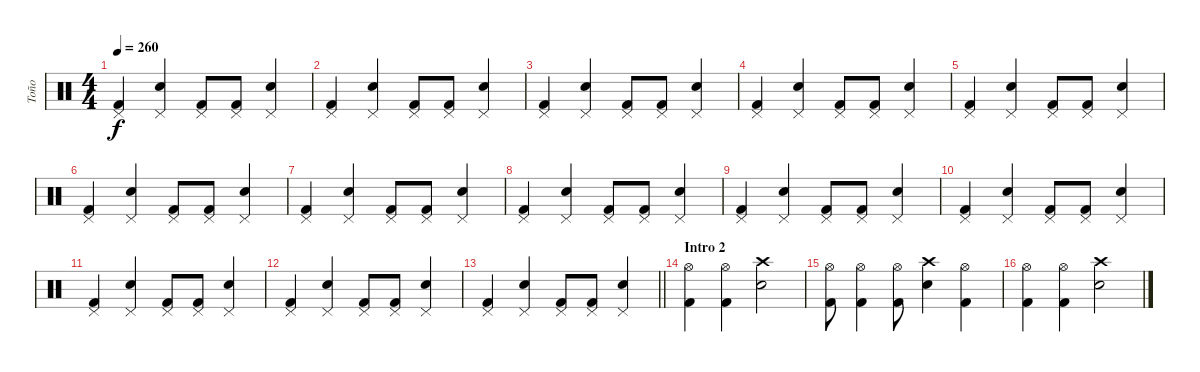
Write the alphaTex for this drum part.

\track ("Toño" "Toño") {instrument percussion}
\staff {score}
\articulation defaults
\ts (4 4)
\tempo 260
\clef neutral
\ks c
("Pedal Hi-Hat (hit)" "Kick (hit) 2").4{dy f} ("Pedal Hi-Hat (hit)" "Electric Snare (hit)").4 ("Pedal Hi-Hat (hit)" "Kick (hit) 2").8 ("Pedal Hi-Hat (hit)" "Kick (hit) 2").8 ("Pedal Hi-Hat (hit)" "Electric Snare (hit)").4 |
("Pedal Hi-Hat (hit)" "Kick (hit) 2").4 ("Pedal Hi-Hat (hit)" "Electric Snare (hit)").4 ("Pedal Hi-Hat (hit)" "Kick (hit) 2").8 ("Pedal Hi-Hat (hit)" "Kick (hit) 2").8 ("Pedal Hi-Hat (hit)" "Electric Snare (hit)").4 |
("Pedal Hi-Hat (hit)" "Kick (hit) 2").4 ("Pedal Hi-Hat (hit)" "Electric Snare (hit)").4 ("Pedal Hi-Hat (hit)" "Kick (hit) 2").8 ("Pedal Hi-Hat (hit)" "Kick (hit) 2").8 ("Pedal Hi-Hat (hit)" "Electric Snare (hit)").4 |
("Pedal Hi-Hat (hit)" "Kick (hit) 2").4 ("Pedal Hi-Hat (hit)" "Electric Snare (hit)").4 ("Pedal Hi-Hat (hit)" "Kick (hit) 2").8 ("Pedal Hi-Hat (hit)" "Kick (hit) 2").8 ("Pedal Hi-Hat (hit)" "Electric Snare (hit)").4 |
("Pedal Hi-Hat (hit)" "Kick (hit) 2").4 ("Pedal Hi-Hat (hit)" "Electric Snare (hit)").4 ("Pedal Hi-Hat (hit)" "Kick (hit) 2").8 ("Pedal Hi-Hat (hit)" "Kick (hit) 2").8 ("Pedal Hi-Hat (hit)" "Electric Snare (hit)").4 |
("Pedal Hi-Hat (hit)" "Kick (hit) 2").4 ("Pedal Hi-Hat (hit)" "Electric Snare (hit)").4 ("Pedal Hi-Hat (hit)" "Kick (hit) 2").8 ("Pedal Hi-Hat (hit)" "Kick (hit) 2").8 ("Pedal Hi-Hat (hit)" "Electric Snare (hit)").4 |
("Pedal Hi-Hat (hit)" "Kick (hit) 2").4 ("Pedal Hi-Hat (hit)" "Electric Snare (hit)").4 ("Pedal Hi-Hat (hit)" "Kick (hit) 2").8 ("Pedal Hi-Hat (hit)" "Kick (hit) 2").8 ("Pedal Hi-Hat (hit)" "Electric Snare (hit)").4 |
("Pedal Hi-Hat (hit)" "Kick (hit) 2").4 ("Pedal Hi-Hat (hit)" "Electric Snare (hit)").4 ("Pedal Hi-Hat (hit)" "Kick (hit) 2").8 ("Pedal Hi-Hat (hit)" "Kick (hit) 2").8 ("Pedal Hi-Hat (hit)" "Electric Snare (hit)").4 |
("Pedal Hi-Hat (hit)" "Kick (hit) 2").4 ("Pedal Hi-Hat (hit)" "Electric Snare (hit)").4 ("Pedal Hi-Hat (hit)" "Kick (hit) 2").8 ("Pedal Hi-Hat (hit)" "Kick (hit) 2").8 ("Pedal Hi-Hat (hit)" "Electric Snare (hit)").4 |
("Pedal Hi-Hat (hit)" "Kick (hit) 2").4 ("Pedal Hi-Hat (hit)" "Electric Snare (hit)").4 ("Pedal Hi-Hat (hit)" "Kick (hit) 2").8 ("Pedal Hi-Hat (hit)" "Kick (hit) 2").8 ("Pedal Hi-Hat (hit)" "Electric Snare (hit)").4 |
("Pedal Hi-Hat (hit)" "Kick (hit) 2").4 ("Pedal Hi-Hat (hit)" "Electric Snare (hit)").4 ("Pedal Hi-Hat (hit)" "Kick (hit) 2").8 ("Pedal Hi-Hat (hit)" "Kick (hit) 2").8 ("Pedal Hi-Hat (hit)" "Electric Snare (hit)").4 |
("Pedal Hi-Hat (hit)" "Kick (hit) 2").4 ("Pedal Hi-Hat (hit)" "Electric Snare (hit)").4 ("Pedal Hi-Hat (hit)" "Kick (hit) 2").8 ("Pedal Hi-Hat (hit)" "Kick (hit) 2").8 ("Pedal Hi-Hat (hit)" "Electric Snare (hit)").4 |
\barLineRight lightlight
("Pedal Hi-Hat (hit)" "Kick (hit) 2").4 ("Pedal Hi-Hat (hit)" "Electric Snare (hit)").4 ("Pedal Hi-Hat (hit)" "Kick (hit) 2").8 ("Pedal Hi-Hat (hit)" "Kick (hit) 2").8 ("Pedal Hi-Hat (hit)" "Electric Snare (hit)").4 |
\section ("" "Intro 2")
("Hi-Hat (open)" "Kick (hit) 2").4 ("Hi-Hat (open)" "Kick (hit) 2").4 ("Crash high (hit)" "Electric Snare (hit)").2 |
("Hi-Hat (open)" "Kick (hit) 2").8 ("Hi-Hat (open)" "Kick (hit) 2").4 ("Hi-Hat (open)" "Kick (hit) 2").8 ("Crash high (hit)" "Electric Snare (hit)").4 ("Hi-Hat (open)" "Kick (hit) 2").4 |
("Hi-Hat (open)" "Kick (hit) 2").4 ("Hi-Hat (open)" "Kick (hit) 2").4 ("Crash high (hit)" "Electric Snare (hit)").2
